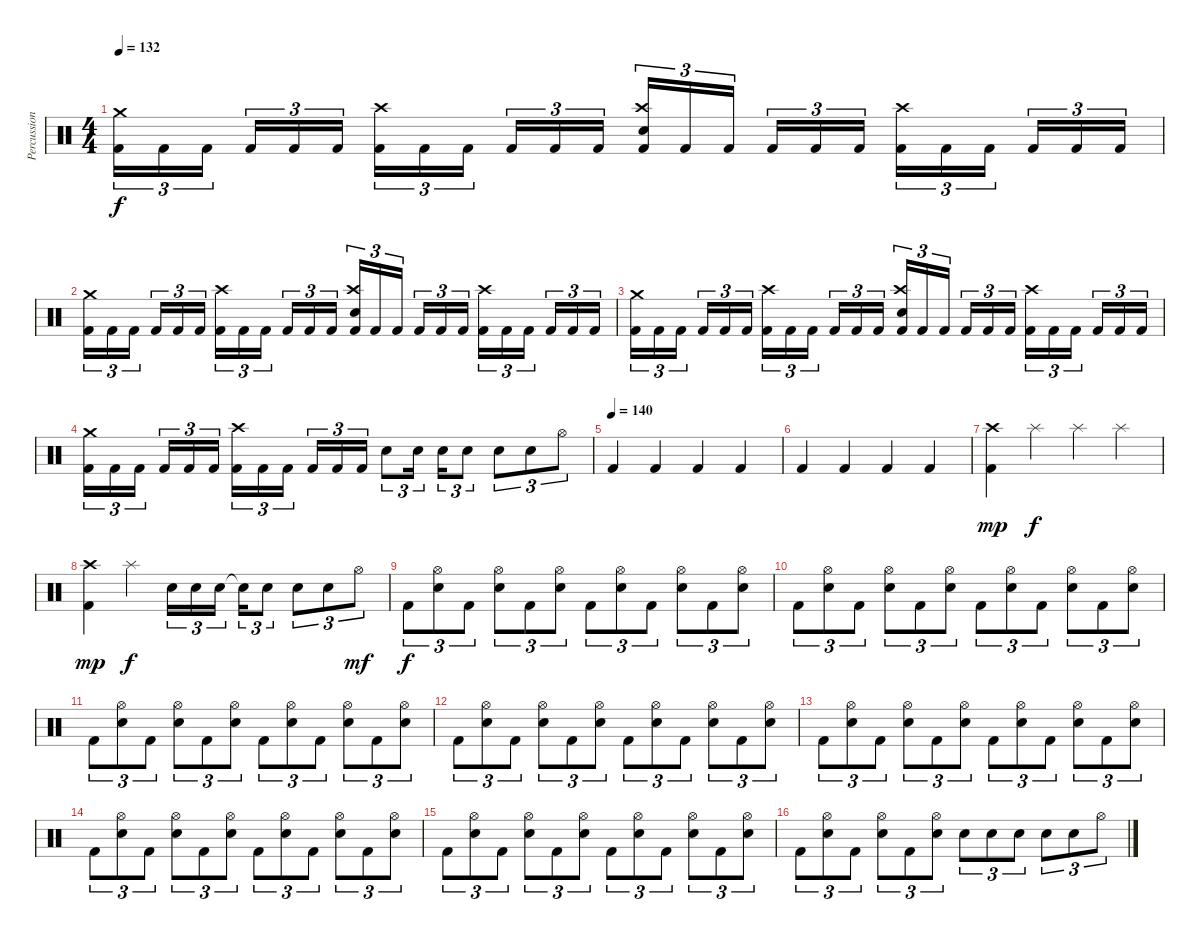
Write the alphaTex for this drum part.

\track ("Percussion" "Percussion") {instrument percussion}
\staff {score}
\articulation defaults
\ts (4 4)
\tempo 132
\clef neutral
\ks c
("Crash medium (hit)" "Kick (hit) 2").16{tu (3 2) dy f} "Kick (hit) 2".16{tu (3 2)} "Kick (hit) 2".16{tu (3 2) beam splitsecondary} "Kick (hit) 2".16{tu (3 2)} "Kick (hit) 2".16{tu (3 2)} "Kick (hit) 2".16{tu (3 2)} ("Crash high (hit)" "Kick (hit) 2").16{tu (3 2)} "Kick (hit) 2".16{tu (3 2)} "Kick (hit) 2".16{tu (3 2) beam splitsecondary} "Kick (hit) 2".16{tu (3 2)} "Kick (hit) 2".16{tu (3 2)} "Kick (hit) 2".16{tu (3 2)} ("Crash high (hit)" "Snare (hit) 2" "Kick (hit) 2").16{tu (3 2)} "Kick (hit) 2".16{tu (3 2)} "Kick (hit) 2".16{tu (3 2) beam splitsecondary} "Kick (hit) 2".16{tu (3 2)} "Kick (hit) 2".16{tu (3 2)} "Kick (hit) 2".16{tu (3 2)} ("Crash high (hit)" "Kick (hit) 2").16{tu (3 2)} "Kick (hit) 2".16{tu (3 2)} "Kick (hit) 2".16{tu (3 2) beam splitsecondary} "Kick (hit) 2".16{tu (3 2)} "Kick (hit) 2".16{tu (3 2)} "Kick (hit) 2".16{tu (3 2)} |
("Crash medium (hit)" "Kick (hit) 2").16{tu (3 2)} "Kick (hit) 2".16{tu (3 2)} "Kick (hit) 2".16{tu (3 2) beam splitsecondary} "Kick (hit) 2".16{tu (3 2)} "Kick (hit) 2".16{tu (3 2)} "Kick (hit) 2".16{tu (3 2)} ("Crash high (hit)" "Kick (hit) 2").16{tu (3 2)} "Kick (hit) 2".16{tu (3 2)} "Kick (hit) 2".16{tu (3 2) beam splitsecondary} "Kick (hit) 2".16{tu (3 2)} "Kick (hit) 2".16{tu (3 2)} "Kick (hit) 2".16{tu (3 2)} ("Crash high (hit)" "Snare (hit) 2" "Kick (hit) 2").16{tu (3 2)} "Kick (hit) 2".16{tu (3 2)} "Kick (hit) 2".16{tu (3 2) beam splitsecondary} "Kick (hit) 2".16{tu (3 2)} "Kick (hit) 2".16{tu (3 2)} "Kick (hit) 2".16{tu (3 2)} ("Crash high (hit)" "Kick (hit) 2").16{tu (3 2)} "Kick (hit) 2".16{tu (3 2)} "Kick (hit) 2".16{tu (3 2) beam splitsecondary} "Kick (hit) 2".16{tu (3 2)} "Kick (hit) 2".16{tu (3 2)} "Kick (hit) 2".16{tu (3 2)} |
("Crash medium (hit)" "Kick (hit) 2").16{tu (3 2)} "Kick (hit) 2".16{tu (3 2)} "Kick (hit) 2".16{tu (3 2) beam splitsecondary} "Kick (hit) 2".16{tu (3 2)} "Kick (hit) 2".16{tu (3 2)} "Kick (hit) 2".16{tu (3 2)} ("Crash high (hit)" "Kick (hit) 2").16{tu (3 2)} "Kick (hit) 2".16{tu (3 2)} "Kick (hit) 2".16{tu (3 2) beam splitsecondary} "Kick (hit) 2".16{tu (3 2)} "Kick (hit) 2".16{tu (3 2)} "Kick (hit) 2".16{tu (3 2)} ("Crash high (hit)" "Snare (hit) 2" "Kick (hit) 2").16{tu (3 2)} "Kick (hit) 2".16{tu (3 2)} "Kick (hit) 2".16{tu (3 2) beam splitsecondary} "Kick (hit) 2".16{tu (3 2)} "Kick (hit) 2".16{tu (3 2)} "Kick (hit) 2".16{tu (3 2)} ("Crash high (hit)" "Kick (hit) 2").16{tu (3 2)} "Kick (hit) 2".16{tu (3 2)} "Kick (hit) 2".16{tu (3 2) beam splitsecondary} "Kick (hit) 2".16{tu (3 2)} "Kick (hit) 2".16{tu (3 2)} "Kick (hit) 2".16{tu (3 2)} |
("Crash medium (hit)" "Kick (hit) 2").16{tu (3 2)} "Kick (hit) 2".16{tu (3 2)} "Kick (hit) 2".16{tu (3 2) beam splitsecondary} "Kick (hit) 2".16{tu (3 2)} "Kick (hit) 2".16{tu (3 2)} "Kick (hit) 2".16{tu (3 2)} ("Crash high (hit)" "Kick (hit) 2").16{tu (3 2)} "Kick (hit) 2".16{tu (3 2)} "Kick (hit) 2".16{tu (3 2) beam splitsecondary} "Kick (hit) 2".16{tu (3 2)} "Kick (hit) 2".16{tu (3 2)} "Kick (hit) 2".16{tu (3 2)} "Snare (hit) 2".8{tu (3 2)} "Snare (hit) 2".16{tu (3 2) beam splitsecondary} "Snare (hit) 2".16{tu (3 2)} "Snare (hit) 2".8{tu (3 2)} "Snare (hit) 2".8{tu (3 2)} "Snare (hit) 2".8{tu (3 2)} "Hi-Hat (open)".8{tu (3 2)} |
\tempo (140)
"Kick (hit) 2".4 "Kick (hit) 2".4 "Kick (hit) 2".4 "Kick (hit) 2".4 |
"Kick (hit) 2".4 "Kick (hit) 2".4 "Kick (hit) 2".4 "Kick (hit) 2".4 |
("Crash high (hit)" "Kick (hit) 2").4{dy mp} "Splash (hit)".4{dy f} "Splash (hit)".4 "Splash (hit)".4 |
("Crash high (hit)" "Kick (hit) 2").4{dy mp} "Splash (hit)".4{dy f} "Snare (hit) 2".16{tu (3 2)} "Snare (hit) 2".16{tu (3 2)} "Snare (hit) 2".16{tu (3 2) beam splitsecondary} "Snare (hit)"{t}.16{tu (3 2)} "Snare (hit) 2".8{tu (3 2)} "Snare (hit) 2".8{tu (3 2)} "Snare (hit) 2".8{tu (3 2)} "Hi-Hat (open)".8{tu (3 2) dy mf} |
"Kick (hit) 2".8{tu (3 2) dy f} ("Hi-Hat (open)" "Snare (hit) 2").8{tu (3 2)} "Kick (hit) 2".8{tu (3 2)} ("Hi-Hat (open)" "Snare (hit) 2").8{tu (3 2)} "Kick (hit) 2".8{tu (3 2)} ("Hi-Hat (open)" "Snare (hit) 2").8{tu (3 2)} "Kick (hit) 2".8{tu (3 2)} ("Hi-Hat (open)" "Snare (hit) 2").8{tu (3 2)} "Kick (hit) 2".8{tu (3 2)} ("Hi-Hat (open)" "Snare (hit) 2").8{tu (3 2)} "Kick (hit) 2".8{tu (3 2)} ("Hi-Hat (open)" "Snare (hit) 2").8{tu (3 2)} |
"Kick (hit) 2".8{tu (3 2)} ("Hi-Hat (open)" "Snare (hit) 2").8{tu (3 2)} "Kick (hit) 2".8{tu (3 2)} ("Hi-Hat (open)" "Snare (hit) 2").8{tu (3 2)} "Kick (hit) 2".8{tu (3 2)} ("Hi-Hat (open)" "Snare (hit) 2").8{tu (3 2)} "Kick (hit) 2".8{tu (3 2)} ("Hi-Hat (open)" "Snare (hit) 2").8{tu (3 2)} "Kick (hit) 2".8{tu (3 2)} ("Hi-Hat (open)" "Snare (hit) 2").8{tu (3 2)} "Kick (hit) 2".8{tu (3 2)} ("Hi-Hat (open)" "Snare (hit) 2").8{tu (3 2)} |
"Kick (hit) 2".8{tu (3 2)} ("Hi-Hat (open)" "Snare (hit) 2").8{tu (3 2)} "Kick (hit) 2".8{tu (3 2)} ("Hi-Hat (open)" "Snare (hit) 2").8{tu (3 2)} "Kick (hit) 2".8{tu (3 2)} ("Hi-Hat (open)" "Snare (hit) 2").8{tu (3 2)} "Kick (hit) 2".8{tu (3 2)} ("Hi-Hat (open)" "Snare (hit) 2").8{tu (3 2)} "Kick (hit) 2".8{tu (3 2)} ("Hi-Hat (open)" "Snare (hit) 2").8{tu (3 2)} "Kick (hit) 2".8{tu (3 2)} ("Hi-Hat (open)" "Snare (hit) 2").8{tu (3 2)} |
"Kick (hit) 2".8{tu (3 2)} ("Hi-Hat (open)" "Snare (hit) 2").8{tu (3 2)} "Kick (hit) 2".8{tu (3 2)} ("Hi-Hat (open)" "Snare (hit) 2").8{tu (3 2)} "Kick (hit) 2".8{tu (3 2)} ("Hi-Hat (open)" "Snare (hit) 2").8{tu (3 2)} "Kick (hit) 2".8{tu (3 2)} ("Hi-Hat (open)" "Snare (hit) 2").8{tu (3 2)} "Kick (hit) 2".8{tu (3 2)} ("Hi-Hat (open)" "Snare (hit) 2").8{tu (3 2)} "Kick (hit) 2".8{tu (3 2)} ("Hi-Hat (open)" "Snare (hit) 2").8{tu (3 2)} |
"Kick (hit) 2".8{tu (3 2)} ("Hi-Hat (open)" "Snare (hit) 2").8{tu (3 2)} "Kick (hit) 2".8{tu (3 2)} ("Hi-Hat (open)" "Snare (hit) 2").8{tu (3 2)} "Kick (hit) 2".8{tu (3 2)} ("Hi-Hat (open)" "Snare (hit) 2").8{tu (3 2)} "Kick (hit) 2".8{tu (3 2)} ("Hi-Hat (open)" "Snare (hit) 2").8{tu (3 2)} "Kick (hit) 2".8{tu (3 2)} ("Hi-Hat (open)" "Snare (hit) 2").8{tu (3 2)} "Kick (hit) 2".8{tu (3 2)} ("Hi-Hat (open)" "Snare (hit) 2").8{tu (3 2)} |
"Kick (hit) 2".8{tu (3 2)} ("Hi-Hat (open)" "Snare (hit) 2").8{tu (3 2)} "Kick (hit) 2".8{tu (3 2)} ("Hi-Hat (open)" "Snare (hit) 2").8{tu (3 2)} "Kick (hit) 2".8{tu (3 2)} ("Hi-Hat (open)" "Snare (hit) 2").8{tu (3 2)} "Kick (hit) 2".8{tu (3 2)} ("Hi-Hat (open)" "Snare (hit) 2").8{tu (3 2)} "Kick (hit) 2".8{tu (3 2)} ("Hi-Hat (open)" "Snare (hit) 2").8{tu (3 2)} "Kick (hit) 2".8{tu (3 2)} ("Hi-Hat (open)" "Snare (hit) 2").8{tu (3 2)} |
"Kick (hit) 2".8{tu (3 2)} ("Hi-Hat (open)" "Snare (hit) 2").8{tu (3 2)} "Kick (hit) 2".8{tu (3 2)} ("Hi-Hat (open)" "Snare (hit) 2").8{tu (3 2)} "Kick (hit) 2".8{tu (3 2)} ("Hi-Hat (open)" "Snare (hit) 2").8{tu (3 2)} "Kick (hit) 2".8{tu (3 2)} ("Hi-Hat (open)" "Snare (hit) 2").8{tu (3 2)} "Kick (hit) 2".8{tu (3 2)} ("Hi-Hat (open)" "Snare (hit) 2").8{tu (3 2)} "Kick (hit) 2".8{tu (3 2)} ("Hi-Hat (open)" "Snare (hit) 2").8{tu (3 2)} |
"Kick (hit) 2".8{tu (3 2)} ("Hi-Hat (open)" "Snare (hit) 2").8{tu (3 2)} "Kick (hit) 2".8{tu (3 2)} ("Hi-Hat (open)" "Snare (hit) 2").8{tu (3 2)} "Kick (hit) 2".8{tu (3 2)} ("Hi-Hat (open)" "Snare (hit) 2").8{tu (3 2)} "Snare (hit) 2".8{tu (3 2)} "Snare (hit) 2".8{tu (3 2)} "Snare (hit) 2".8{tu (3 2)} "Snare (hit) 2".8{tu (3 2)} "Snare (hit) 2".8{tu (3 2)} "Hi-Hat (open)".8{tu (3 2)}
